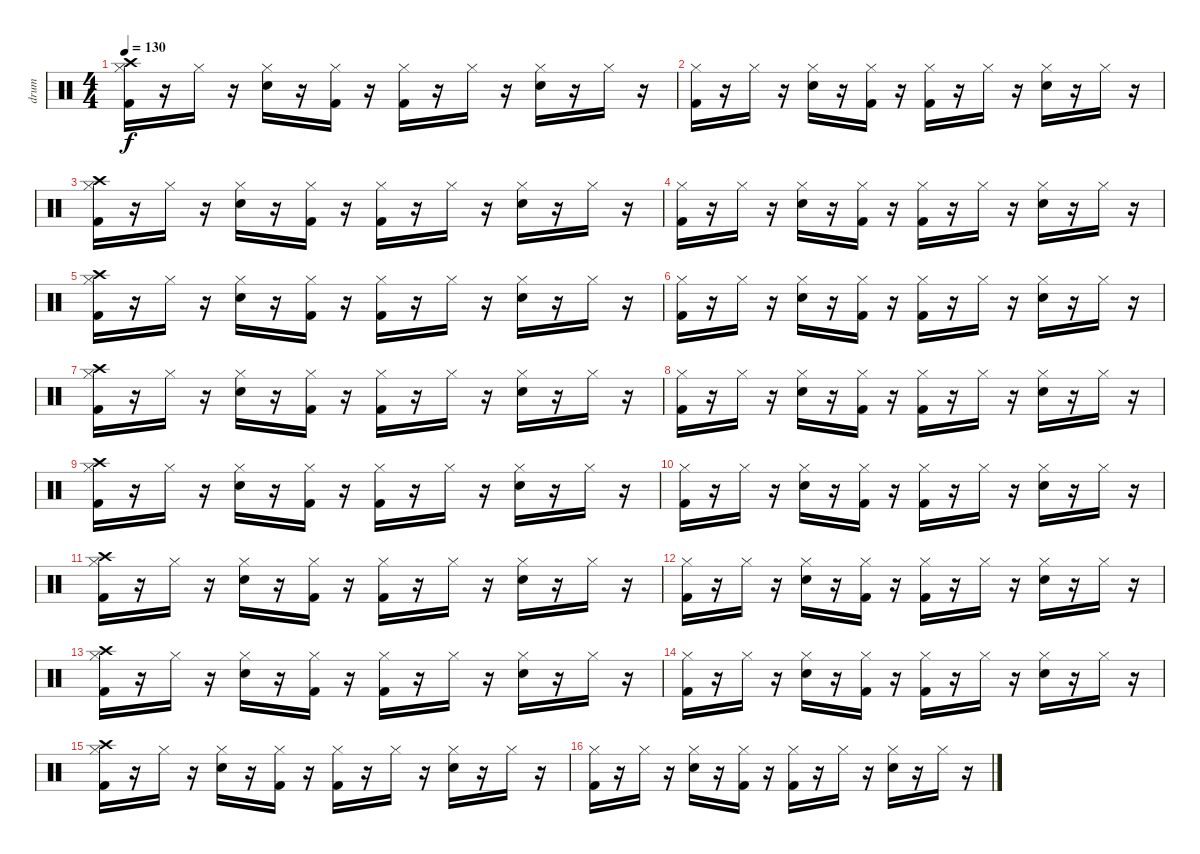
\track ("drum" "drum") {instrument percussion}
\staff {score}
\articulation defaults
\ts (4 4)
\tempo 130
\clef neutral
\ks c
("Crash high (hit)" "Hi-Hat (closed)" "Kick (hit) 2").16{dy f} r.16 "Hi-Hat (closed)".16 r.16 ("Hi-Hat (closed)" "Snare (hit) 2").16 r.16 ("Kick (hit) 2" "Hi-Hat (closed)").16 r.16 ("Hi-Hat (closed)" "Kick (hit) 2").16 r.16 "Hi-Hat (closed)".16 r.16 ("Snare (hit) 2" "Hi-Hat (closed)").16 r.16 "Hi-Hat (closed)".16 r.16 |
("Kick (hit) 2" "Hi-Hat (closed)").16 r.16 "Hi-Hat (closed)".16 r.16 ("Hi-Hat (closed)" "Snare (hit) 2").16 r.16 ("Kick (hit) 2" "Hi-Hat (closed)").16 r.16 ("Kick (hit) 2" "Hi-Hat (closed)").16 r.16 "Hi-Hat (closed)".16 r.16 ("Hi-Hat (closed)" "Snare (hit) 2").16 r.16 "Hi-Hat (closed)".16 r.16 |
("Kick (hit) 2" "Hi-Hat (closed)" "Crash high (hit)").16 r.16 "Hi-Hat (closed)".16 r.16 ("Snare (hit) 2" "Hi-Hat (closed)").16 r.16 ("Hi-Hat (closed)" "Kick (hit) 2").16 r.16 ("Hi-Hat (closed)" "Kick (hit) 2").16 r.16 "Hi-Hat (closed)".16 r.16 ("Snare (hit) 2" "Hi-Hat (closed)").16 r.16 "Hi-Hat (closed)".16 r.16 |
("Kick (hit) 2" "Hi-Hat (closed)").16 r.16 "Hi-Hat (closed)".16 r.16 ("Snare (hit) 2" "Hi-Hat (closed)").16 r.16 ("Kick (hit) 2" "Hi-Hat (closed)").16 r.16 ("Kick (hit) 2" "Hi-Hat (closed)").16 r.16 "Hi-Hat (closed)".16 r.16 ("Hi-Hat (closed)" "Snare (hit) 2").16 r.16 "Hi-Hat (closed)".16 r.16 |
("Kick (hit) 2" "Hi-Hat (closed)" "Crash high (hit)").16 r.16 "Hi-Hat (closed)".16 r.16 ("Snare (hit) 2" "Hi-Hat (closed)").16 r.16 ("Hi-Hat (closed)" "Kick (hit) 2").16 r.16 ("Hi-Hat (closed)" "Kick (hit) 2").16 r.16 "Hi-Hat (closed)".16 r.16 ("Snare (hit) 2" "Hi-Hat (closed)").16 r.16 "Hi-Hat (closed)".16 r.16 |
("Kick (hit) 2" "Hi-Hat (closed)").16 r.16 "Hi-Hat (closed)".16 r.16 ("Hi-Hat (closed)" "Snare (hit) 2").16 r.16 ("Hi-Hat (closed)" "Kick (hit) 2").16 r.16 ("Hi-Hat (closed)" "Kick (hit) 2").16 r.16 "Hi-Hat (closed)".16 r.16 ("Snare (hit) 2" "Hi-Hat (closed)").16 r.16 "Hi-Hat (closed)".16 r.16 |
("Hi-Hat (closed)" "Kick (hit) 2" "Crash high (hit)").16 r.16 "Hi-Hat (closed)".16 r.16 ("Snare (hit) 2" "Hi-Hat (closed)").16 r.16 ("Hi-Hat (closed)" "Kick (hit) 2").16 r.16 ("Kick (hit) 2" "Hi-Hat (closed)").16 r.16 "Hi-Hat (closed)".16 r.16 ("Hi-Hat (closed)" "Snare (hit) 2").16 r.16 "Hi-Hat (closed)".16 r.16 |
("Hi-Hat (closed)" "Kick (hit) 2").16 r.16 "Hi-Hat (closed)".16 r.16 ("Hi-Hat (closed)" "Snare (hit) 2").16 r.16 ("Kick (hit) 2" "Hi-Hat (closed)").16 r.16 ("Hi-Hat (closed)" "Kick (hit) 2").16 r.16 "Hi-Hat (closed)".16 r.16 ("Hi-Hat (closed)" "Snare (hit) 2").16 r.16 "Hi-Hat (closed)".16 r.16 |
("Hi-Hat (closed)" "Kick (hit) 2" "Crash high (hit)").16 r.16 "Hi-Hat (closed)".16 r.16 ("Hi-Hat (closed)" "Snare (hit) 2").16 r.16 ("Kick (hit) 2" "Hi-Hat (closed)").16 r.16 ("Hi-Hat (closed)" "Kick (hit) 2").16 r.16 "Hi-Hat (closed)".16 r.16 ("Hi-Hat (closed)" "Snare (hit) 2").16 r.16 "Hi-Hat (closed)".16 r.16 |
("Kick (hit) 2" "Hi-Hat (closed)").16 r.16 "Hi-Hat (closed)".16 r.16 ("Hi-Hat (closed)" "Snare (hit) 2").16 r.16 ("Hi-Hat (closed)" "Kick (hit) 2").16 r.16 ("Kick (hit) 2" "Hi-Hat (closed)").16 r.16 "Hi-Hat (closed)".16 r.16 ("Hi-Hat (closed)" "Snare (hit) 2").16 r.16 "Hi-Hat (closed)".16 r.16 |
("Kick (hit) 2" "Crash high (hit)" "Hi-Hat (closed)").16 r.16 "Hi-Hat (closed)".16 r.16 ("Hi-Hat (closed)" "Snare (hit) 2").16 r.16 ("Kick (hit) 2" "Hi-Hat (closed)").16 r.16 ("Kick (hit) 2" "Hi-Hat (closed)").16 r.16 "Hi-Hat (closed)".16 r.16 ("Hi-Hat (closed)" "Snare (hit) 2").16 r.16 "Hi-Hat (closed)".16 r.16 |
("Kick (hit) 2" "Hi-Hat (closed)").16 r.16 "Hi-Hat (closed)".16 r.16 ("Snare (hit) 2" "Hi-Hat (closed)").16 r.16 ("Kick (hit) 2" "Hi-Hat (closed)").16 r.16 ("Kick (hit) 2" "Hi-Hat (closed)").16 r.16 "Hi-Hat (closed)".16 r.16 ("Hi-Hat (closed)" "Snare (hit) 2").16 r.16 "Hi-Hat (closed)".16 r.16 |
("Hi-Hat (closed)" "Kick (hit) 2" "Crash high (hit)").16 r.16 "Hi-Hat (closed)".16 r.16 ("Hi-Hat (closed)" "Snare (hit) 2").16 r.16 ("Hi-Hat (closed)" "Kick (hit) 2").16 r.16 ("Hi-Hat (closed)" "Kick (hit) 2").16 r.16 "Hi-Hat (closed)".16 r.16 ("Snare (hit) 2" "Hi-Hat (closed)").16 r.16 "Hi-Hat (closed)".16 r.16 |
("Hi-Hat (closed)" "Kick (hit) 2").16 r.16 "Hi-Hat (closed)".16 r.16 ("Hi-Hat (closed)" "Snare (hit) 2").16 r.16 ("Hi-Hat (closed)" "Kick (hit) 2").16 r.16 ("Hi-Hat (closed)" "Kick (hit) 2").16 r.16 "Hi-Hat (closed)".16 r.16 ("Snare (hit) 2" "Hi-Hat (closed)").16 r.16 "Hi-Hat (closed)".16 r.16 |
("Hi-Hat (closed)" "Crash high (hit)" "Kick (hit) 2").16 r.16 "Hi-Hat (closed)".16 r.16 ("Snare (hit) 2" "Hi-Hat (closed)").16 r.16 ("Hi-Hat (closed)" "Kick (hit) 2").16 r.16 ("Kick (hit) 2" "Hi-Hat (closed)").16 r.16 "Hi-Hat (closed)".16 r.16 ("Snare (hit) 2" "Hi-Hat (closed)").16 r.16 "Hi-Hat (closed)".16 r.16 |
("Hi-Hat (closed)" "Kick (hit) 2").16 r.16 "Hi-Hat (closed)".16 r.16 ("Hi-Hat (closed)" "Snare (hit) 2").16 r.16 ("Hi-Hat (closed)" "Kick (hit) 2").16 r.16 ("Kick (hit) 2" "Hi-Hat (closed)").16 r.16 "Hi-Hat (closed)".16 r.16 ("Snare (hit) 2" "Hi-Hat (closed)").16 r.16 "Hi-Hat (closed)".16 r.16
